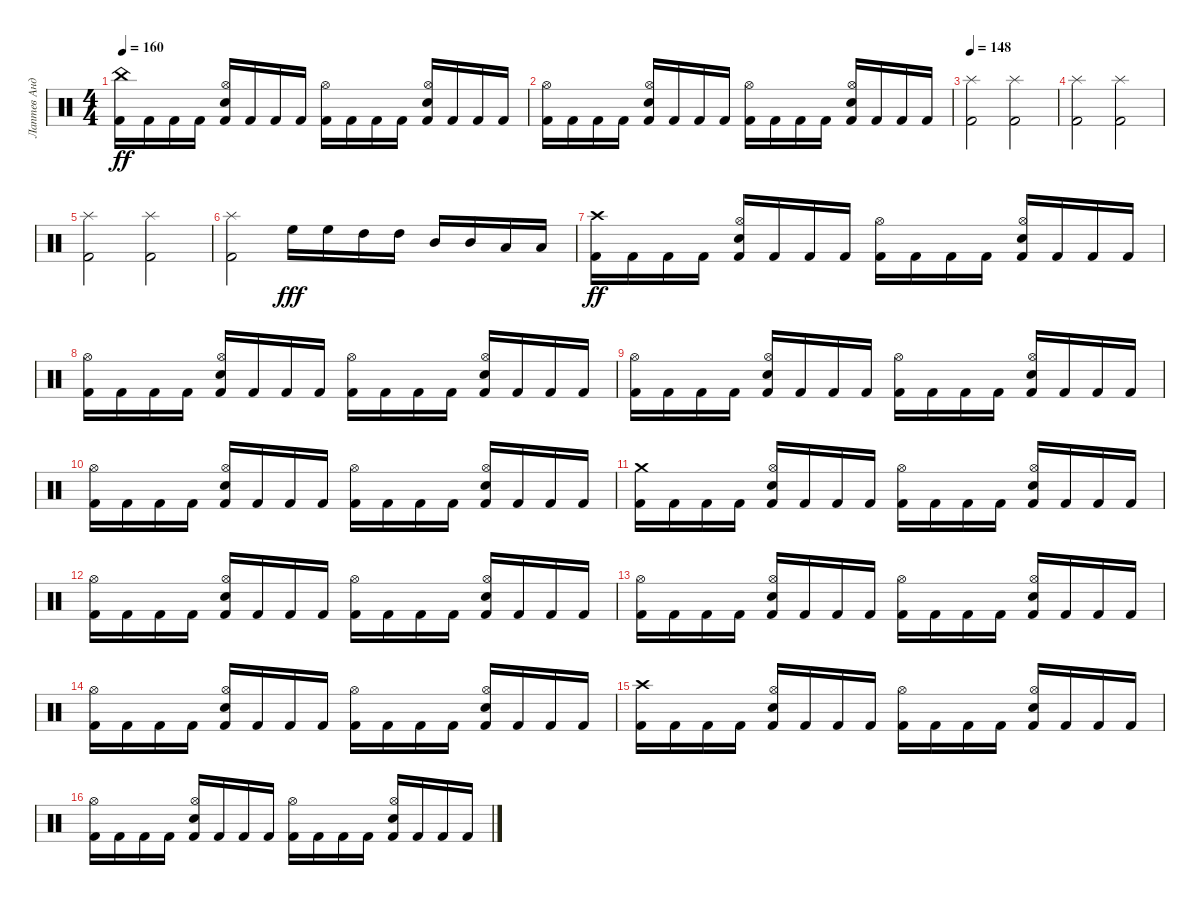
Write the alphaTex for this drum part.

\track ("Лаптев Андрей" "Лаптев Анд") {instrument percussion}
\staff {score}
\articulation defaults
\ts (4 4)
\tempo 160
\clef neutral
\ks c
("China (hit)" "Kick (hit) 2").16{dy ff} "Kick (hit) 2".16 "Kick (hit) 2".16 "Kick (hit) 2".16 ("Hi-Hat (open)" "Kick (hit) 2" "Electric Snare (hit)").16 "Kick (hit) 2".16 "Kick (hit) 2".16 "Kick (hit) 2".16 ("Hi-Hat (open)" "Kick (hit) 2").16 "Kick (hit) 2".16 "Kick (hit) 2".16 "Kick (hit) 2".16 ("Hi-Hat (open)" "Electric Snare (hit)" "Kick (hit) 2").16 "Kick (hit) 2".16 "Kick (hit) 2".16 "Kick (hit) 2".16 |
("Hi-Hat (open)" "Kick (hit) 2").16 "Kick (hit) 2".16 "Kick (hit) 2".16 "Kick (hit) 2".16 ("Kick (hit) 2" "Hi-Hat (open)" "Electric Snare (hit)").16 "Kick (hit) 2".16 "Kick (hit) 2".16 "Kick (hit) 2".16 ("Kick (hit) 2" "Hi-Hat (open)").16 "Kick (hit) 2".16 "Kick (hit) 2".16 "Kick (hit) 2".16 ("Kick (hit) 2" "Electric Snare (hit)" "Hi-Hat (open)").16 "Kick (hit) 2".16 "Kick (hit) 2".16 "Kick (hit) 2".16 |
\tempo 148
("Splash (hit)" "Kick (hit) 2").2 ("Kick (hit) 2" "Splash (hit)").2 |
("Kick (hit) 2" "Splash (hit)").2 ("Kick (hit) 2" "Splash (hit)").2 |
("Splash (hit)" "Kick (hit) 2").2 ("Kick (hit) 2" "Splash (hit)").2 |
("Splash (hit)" "Kick (hit) 2").2 "High Floor Tom (hit)".16{dy fff} "High Floor Tom (hit)".16 "High Tom (hit)".16 "High Tom (hit)".16 "Mid Tom (hit)".16 "Mid Tom (hit)".16 "Low Tom (hit)".16 "Low Tom (hit)".16 |
("Crash high (hit)" "Kick (hit) 2").16{dy ff} "Kick (hit) 2".16 "Kick (hit) 2".16 "Kick (hit) 2".16 ("Hi-Hat (open)" "Kick (hit) 2" "Electric Snare (hit)").16 "Kick (hit) 2".16 "Kick (hit) 2".16 "Kick (hit) 2".16 ("Hi-Hat (open)" "Kick (hit) 2").16 "Kick (hit) 2".16 "Kick (hit) 2".16 "Kick (hit) 2".16 ("Hi-Hat (open)" "Kick (hit) 2" "Electric Snare (hit)").16 "Kick (hit) 2".16 "Kick (hit) 2".16 "Kick (hit) 2".16 |
("Hi-Hat (open)" "Kick (hit) 2").16 "Kick (hit) 2".16 "Kick (hit) 2".16 "Kick (hit) 2".16 ("Kick (hit) 2" "Hi-Hat (open)" "Electric Snare (hit)").16 "Kick (hit) 2".16 "Kick (hit) 2".16 "Kick (hit) 2".16 ("Hi-Hat (open)" "Kick (hit) 2").16 "Kick (hit) 2".16 "Kick (hit) 2".16 "Kick (hit) 2".16 ("Kick (hit) 2" "Electric Snare (hit)" "Hi-Hat (open)").16 "Kick (hit) 2".16 "Kick (hit) 2".16 "Kick (hit) 2".16 |
("Hi-Hat (open)" "Kick (hit) 2").16 "Kick (hit) 2".16 "Kick (hit) 2".16 "Kick (hit) 2".16 ("Hi-Hat (open)" "Kick (hit) 2" "Electric Snare (hit)").16 "Kick (hit) 2".16 "Kick (hit) 2".16 "Kick (hit) 2".16 ("Hi-Hat (open)" "Kick (hit) 2").16 "Kick (hit) 2".16 "Kick (hit) 2".16 "Kick (hit) 2".16 ("Hi-Hat (open)" "Electric Snare (hit)" "Kick (hit) 2").16 "Kick (hit) 2".16 "Kick (hit) 2".16 "Kick (hit) 2".16 |
("Hi-Hat (open)" "Kick (hit) 2").16 "Kick (hit) 2".16 "Kick (hit) 2".16 "Kick (hit) 2".16 ("Kick (hit) 2" "Hi-Hat (open)" "Electric Snare (hit)").16 "Kick (hit) 2".16 "Kick (hit) 2".16 "Kick (hit) 2".16 ("Hi-Hat (open)" "Kick (hit) 2").16 "Kick (hit) 2".16 "Kick (hit) 2".16 "Kick (hit) 2".16 ("Kick (hit) 2" "Electric Snare (hit)" "Hi-Hat (open)").16 "Kick (hit) 2".16 "Kick (hit) 2".16 "Kick (hit) 2".16 |
("Crash medium (hit)" "Kick (hit) 2").16 "Kick (hit) 2".16 "Kick (hit) 2".16 "Kick (hit) 2".16 ("Hi-Hat (open)" "Kick (hit) 2" "Electric Snare (hit)").16 "Kick (hit) 2".16 "Kick (hit) 2".16 "Kick (hit) 2".16 ("Hi-Hat (open)" "Kick (hit) 2").16 "Kick (hit) 2".16 "Kick (hit) 2".16 "Kick (hit) 2".16 ("Hi-Hat (open)" "Electric Snare (hit)" "Kick (hit) 2").16 "Kick (hit) 2".16 "Kick (hit) 2".16 "Kick (hit) 2".16 |
("Hi-Hat (open)" "Kick (hit) 2").16 "Kick (hit) 2".16 "Kick (hit) 2".16 "Kick (hit) 2".16 ("Kick (hit) 2" "Hi-Hat (open)" "Electric Snare (hit)").16 "Kick (hit) 2".16 "Kick (hit) 2".16 "Kick (hit) 2".16 ("Hi-Hat (open)" "Kick (hit) 2").16 "Kick (hit) 2".16 "Kick (hit) 2".16 "Kick (hit) 2".16 ("Kick (hit) 2" "Electric Snare (hit)" "Hi-Hat (open)").16 "Kick (hit) 2".16 "Kick (hit) 2".16 "Kick (hit) 2".16 |
("Hi-Hat (open)" "Kick (hit) 2").16 "Kick (hit) 2".16 "Kick (hit) 2".16 "Kick (hit) 2".16 ("Hi-Hat (open)" "Kick (hit) 2" "Electric Snare (hit)").16 "Kick (hit) 2".16 "Kick (hit) 2".16 "Kick (hit) 2".16 ("Hi-Hat (open)" "Kick (hit) 2").16 "Kick (hit) 2".16 "Kick (hit) 2".16 "Kick (hit) 2".16 ("Hi-Hat (open)" "Electric Snare (hit)" "Kick (hit) 2").16 "Kick (hit) 2".16 "Kick (hit) 2".16 "Kick (hit) 2".16 |
("Hi-Hat (open)" "Kick (hit) 2").16 "Kick (hit) 2".16 "Kick (hit) 2".16 "Kick (hit) 2".16 ("Kick (hit) 2" "Hi-Hat (open)" "Electric Snare (hit)").16 "Kick (hit) 2".16 "Kick (hit) 2".16 "Kick (hit) 2".16 ("Hi-Hat (open)" "Kick (hit) 2").16 "Kick (hit) 2".16 "Kick (hit) 2".16 "Kick (hit) 2".16 ("Kick (hit) 2" "Electric Snare (hit)" "Hi-Hat (open)").16 "Kick (hit) 2".16 "Kick (hit) 2".16 "Kick (hit) 2".16 |
("Crash high (hit)" "Kick (hit) 2").16 "Kick (hit) 2".16 "Kick (hit) 2".16 "Kick (hit) 2".16 ("Hi-Hat (open)" "Kick (hit) 2" "Electric Snare (hit)").16 "Kick (hit) 2".16 "Kick (hit) 2".16 "Kick (hit) 2".16 ("Hi-Hat (open)" "Kick (hit) 2").16 "Kick (hit) 2".16 "Kick (hit) 2".16 "Kick (hit) 2".16 ("Hi-Hat (open)" "Electric Snare (hit)" "Kick (hit) 2").16 "Kick (hit) 2".16 "Kick (hit) 2".16 "Kick (hit) 2".16 |
("Hi-Hat (open)" "Kick (hit) 2").16 "Kick (hit) 2".16 "Kick (hit) 2".16 "Kick (hit) 2".16 ("Kick (hit) 2" "Hi-Hat (open)" "Electric Snare (hit)").16 "Kick (hit) 2".16 "Kick (hit) 2".16 "Kick (hit) 2".16 ("Hi-Hat (open)" "Kick (hit) 2").16 "Kick (hit) 2".16 "Kick (hit) 2".16 "Kick (hit) 2".16 ("Kick (hit) 2" "Electric Snare (hit)" "Hi-Hat (open)").16 "Kick (hit) 2".16 "Kick (hit) 2".16 "Kick (hit) 2".16
